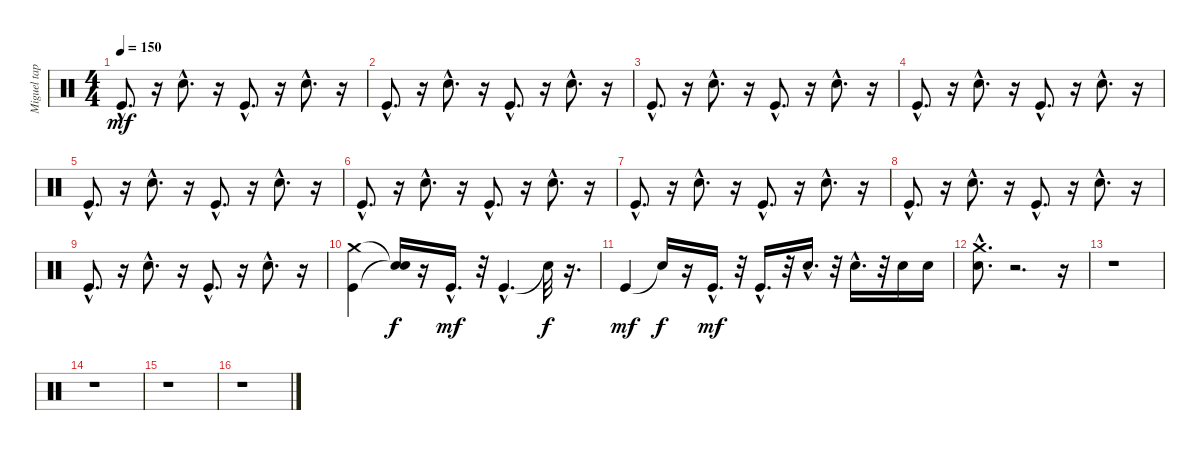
\track ("Miguel tapia" "Miguel tap") {instrument percussion}
\staff {score}
\articulation defaults
\ts (4 4)
\tempo 150
\clef neutral
\ks c "Kick (hit)"{hac}.8{d dy mf}
r.16 "Electric Snare (hit)"{hac}.8{d} r.16 "Kick (hit)"{hac}.8{d} r.16 "Electric Snare (hit)"{hac}.8{d} r.16 |
"Kick (hit)"{hac}.8{d} r.16 "Electric Snare (hit)"{hac}.8{d} r.16 "Kick (hit)"{hac}.8{d} r.16 "Electric Snare (hit)"{hac}.8{d} r.16 |
"Kick (hit)"{hac}.8{d} r.16 "Electric Snare (hit)"{hac}.8{d} r.16 "Kick (hit)"{hac}.8{d} r.16 "Electric Snare (hit)"{hac}.8{d} r.16 |
"Kick (hit)"{hac}.8{d} r.16 "Electric Snare (hit)"{hac}.8{d} r.16 "Kick (hit)"{hac}.8{d} r.16 "Electric Snare (hit)"{hac}.8{d} r.16 |
"Kick (hit)"{hac}.8{d} r.16 "Electric Snare (hit)"{hac}.8{d} r.16 "Kick (hit)"{hac}.8{d} r.16 "Electric Snare (hit)"{hac}.8{d} r.16 |
"Kick (hit)"{hac}.8{d} r.16 "Electric Snare (hit)"{hac}.8{d} r.16 "Kick (hit)"{hac}.8{d} r.16 "Electric Snare (hit)"{hac}.8{d} r.16 |
"Kick (hit)"{hac}.8{d} r.16 "Electric Snare (hit)"{hac}.8{d} r.16 "Kick (hit)"{hac}.8{d} r.16 "Electric Snare (hit)"{hac}.8{d} r.16 |
"Kick (hit)"{hac}.8{d} r.16 "Electric Snare (hit)"{hac}.8{d} r.16 "Kick (hit)"{hac}.8{d} r.16 "Electric Snare (hit)"{hac}.8{d} r.16 |
"Kick (hit)"{hac}.8{d} r.16 "Electric Snare (hit)"{hac}.8{d} r.16 "Kick (hit)"{hac}.8{d} r.16 "Electric Snare (hit)"{hac}.8{d} r.16 |
("Crash medium (hit)" "Kick (hit)").4 ("Snare (hit)"{t} "Snare (hit)"{t}).16{dy f} r.16 "Kick (hit)"{hac}.16{d dy mf} r.32 "Kick (hit)"{hac}.4{d} "Snare (hit)"{t}.32{dy f} r.16{d} |
"Kick (hit)".4{dy mf} "Snare (hit)"{t}.16{dy f} r.16 "Kick (hit)"{hac}.16{d dy mf} r.32 "Kick (hit)"{hac}.16{d} r.32 "Electric Snare (hit)"{hac}.16{d} r.32 "Electric Snare (hit)"{hac}.16{d} r.32 "Electric Snare (hit)".16 "Electric Snare (hit)".16 |
("Crash medium (hit)"{hac} "Electric Snare (hit)"{hac}).8{d} r.2{d} r.16 |
r.1 |
r.1 |
r.1 |
r.1
